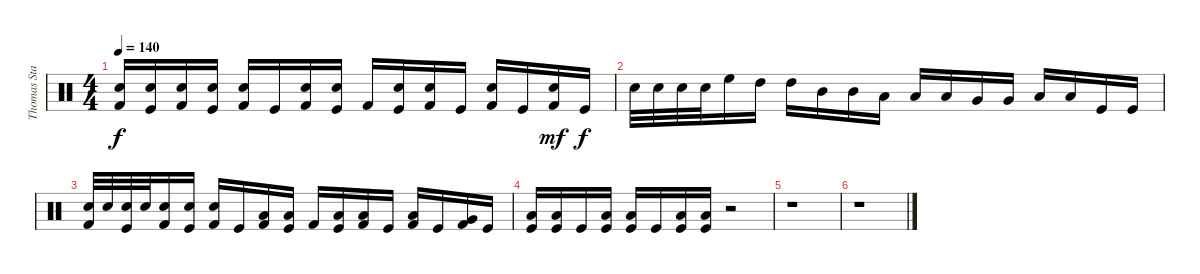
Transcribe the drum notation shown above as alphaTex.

\track ("Thomas Stauch" "Thomas Sta") {instrument percussion}
\staff {score}
\articulation defaults
\ts (4 4)
\tempo 140
\clef neutral
\ks c
("Electric Snare (hit)" "Kick (hit) 2").16{dy f} ("Electric Snare (hit)" "Kick (hit)").16 ("Electric Snare (hit)" "Kick (hit) 2").16 ("Electric Snare (hit)" "Kick (hit)").16 ("Electric Snare (hit)" "Kick (hit) 2").16 "Kick (hit)".16 ("Electric Snare (hit)" "Kick (hit) 2").16 ("Electric Snare (hit)" "Kick (hit)").16 "Kick (hit) 2".16 ("Electric Snare (hit)" "Kick (hit)").16 ("Electric Snare (hit)" "Kick (hit) 2").16 "Kick (hit)".16 ("Electric Snare (hit)" "Kick (hit) 2").16 "Kick (hit)".16 ("Electric Snare (hit)" "Kick (hit) 2").16{dy mf} "Kick (hit)".16{dy f} |
"Electric Snare (hit)".32 "Electric Snare (hit)".32 "Electric Snare (hit)".32 "Electric Snare (hit)".32 "High Floor Tom (hit)".16 "High Tom (hit)".16 "High Tom (hit)".16 "Mid Tom (hit)".16 "Mid Tom (hit)".16 "Low Tom (hit)".16 "Low Tom (hit)".16 "Low Tom (hit)".16 "Very Low Tom (hit)".16 "Very Low Tom (hit)".16 "Low Floor Tom (hit)".16 "Low Floor Tom (hit)".16 "Kick (hit)".16 "Kick (hit)".16 |
("Electric Snare (hit)" "Kick (hit) 2").32 "Electric Snare (hit)".32 ("Electric Snare (hit)" "Kick (hit)").32 "Electric Snare (hit)".32 ("Electric Snare (hit)" "Kick (hit) 2").16 ("Electric Snare (hit)" "Kick (hit)").16 ("Electric Snare (hit)" "Kick (hit) 2").16 "Kick (hit)".16 ("Low Tom (hit)" "Kick (hit) 2").16 ("Low Tom (hit)" "Kick (hit)").16 "Kick (hit) 2".16 ("Low Tom (hit)" "Kick (hit)").16 ("Low Tom (hit)" "Kick (hit) 2").16 "Kick (hit)".16 ("Low Tom (hit)" "Kick (hit) 2").16 "Kick (hit)".16 ("Very Low Tom (hit)" "Kick (hit) 2").16 "Kick (hit)".16 |
("Low Tom (hit)" "Kick (hit)").16 ("Low Tom (hit)" "Kick (hit)").16 "Kick (hit)".16 ("Low Tom (hit)" "Kick (hit)").16 ("Low Tom (hit)" "Kick (hit)").16 "Kick (hit)".16 ("Low Tom (hit)" "Kick (hit)").16 ("Low Tom (hit)" "Kick (hit)").16 r.2 |
r.1 |
r.1
